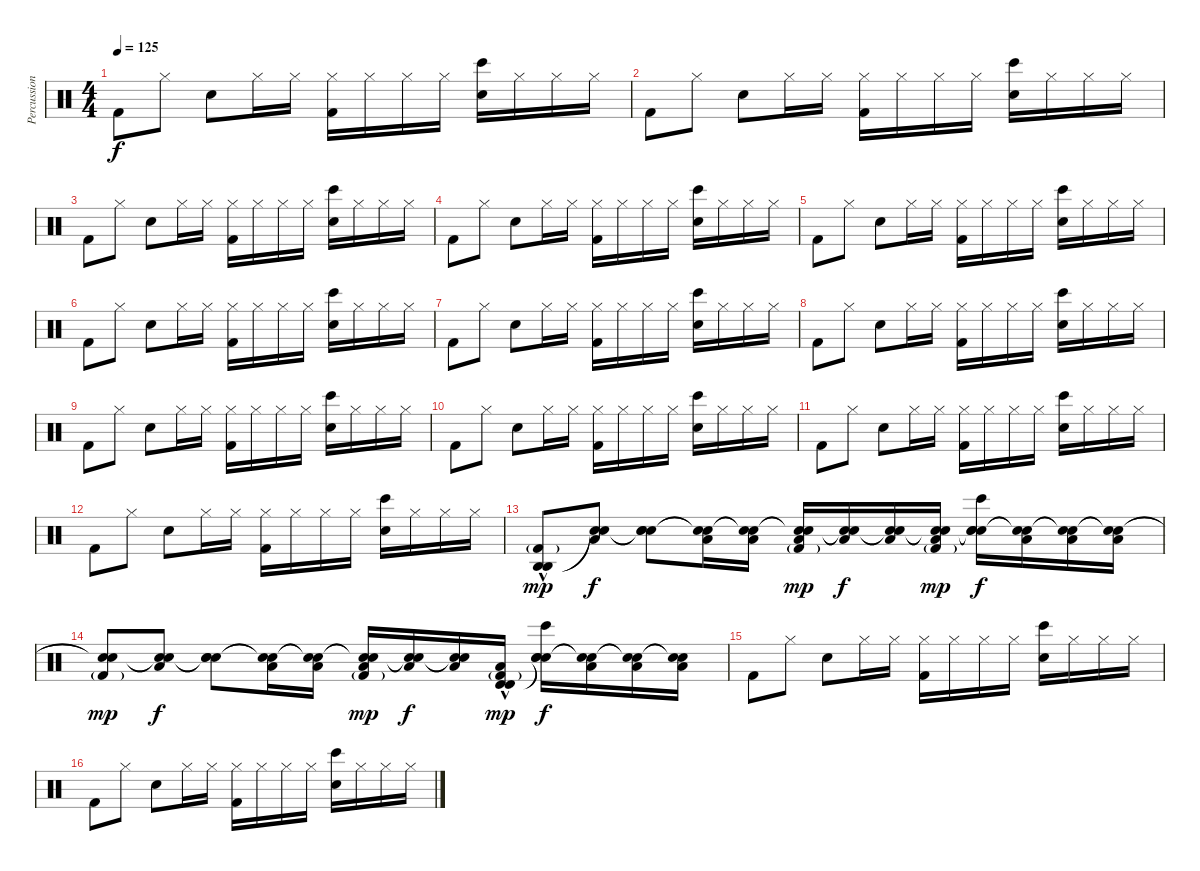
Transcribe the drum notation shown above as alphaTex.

\track ("Percussion" "Percussion") {instrument percussion}
\staff {score}
\articulation defaults
\ts (4 4)
\tempo 125
\clef neutral
\ks c "Kick (hit) 2".8{dy f} "Hi-Hat (closed)".8 "Snare (hit) 2".8 "Hi-Hat (closed)".16 "Hi-Hat (closed)".16
("Hi-Hat (closed)" "Kick (hit) 2").16 "Hi-Hat (closed)".16 "Hi-Hat (closed)".16 "Hi-Hat (closed)".16 ("Bongo High (hit)" "Snare (hit) 2").16 "Hi-Hat (closed)".16 "Hi-Hat (closed)".16 "Hi-Hat (closed)".16 |
"Kick (hit) 2".8 "Hi-Hat (closed)".8 "Snare (hit) 2".8 "Hi-Hat (closed)".16 "Hi-Hat (closed)".16 ("Hi-Hat (closed)" "Kick (hit) 2").16 "Hi-Hat (closed)".16 "Hi-Hat (closed)".16 "Hi-Hat (closed)".16 ("Bongo High (hit)" "Snare (hit) 2").16 "Hi-Hat (closed)".16 "Hi-Hat (closed)".16 "Hi-Hat (closed)".16 |
"Kick (hit) 2".8 "Hi-Hat (closed)".8 "Snare (hit) 2".8 "Hi-Hat (closed)".16 "Hi-Hat (closed)".16 ("Hi-Hat (closed)" "Kick (hit) 2").16 "Hi-Hat (closed)".16 "Hi-Hat (closed)".16 "Hi-Hat (closed)".16 ("Bongo High (hit)" "Snare (hit) 2").16 "Hi-Hat (closed)".16 "Hi-Hat (closed)".16 "Hi-Hat (closed)".16 |
"Kick (hit) 2".8 "Hi-Hat (closed)".8 "Snare (hit) 2".8 "Hi-Hat (closed)".16 "Hi-Hat (closed)".16 ("Hi-Hat (closed)" "Kick (hit) 2").16 "Hi-Hat (closed)".16 "Hi-Hat (closed)".16 "Hi-Hat (closed)".16 ("Bongo High (hit)" "Snare (hit) 2").16 "Hi-Hat (closed)".16 "Hi-Hat (closed)".16 "Hi-Hat (closed)".16 |
"Kick (hit) 2".8 "Hi-Hat (closed)".8 "Snare (hit) 2".8 "Hi-Hat (closed)".16 "Hi-Hat (closed)".16 ("Hi-Hat (closed)" "Kick (hit) 2").16 "Hi-Hat (closed)".16 "Hi-Hat (closed)".16 "Hi-Hat (closed)".16 ("Bongo High (hit)" "Snare (hit) 2").16 "Hi-Hat (closed)".16 "Hi-Hat (closed)".16 "Hi-Hat (closed)".16 |
"Kick (hit) 2".8 "Hi-Hat (closed)".8 "Snare (hit) 2".8 "Hi-Hat (closed)".16 "Hi-Hat (closed)".16 ("Hi-Hat (closed)" "Kick (hit) 2").16 "Hi-Hat (closed)".16 "Hi-Hat (closed)".16 "Hi-Hat (closed)".16 ("Bongo High (hit)" "Snare (hit) 2").16 "Hi-Hat (closed)".16 "Hi-Hat (closed)".16 "Hi-Hat (closed)".16 |
"Kick (hit) 2".8 "Hi-Hat (closed)".8 "Snare (hit) 2".8 "Hi-Hat (closed)".16 "Hi-Hat (closed)".16 ("Hi-Hat (closed)" "Kick (hit) 2").16 "Hi-Hat (closed)".16 "Hi-Hat (closed)".16 "Hi-Hat (closed)".16 ("Bongo High (hit)" "Snare (hit) 2").16 "Hi-Hat (closed)".16 "Hi-Hat (closed)".16 "Hi-Hat (closed)".16 |
"Kick (hit) 2".8 "Hi-Hat (closed)".8 "Snare (hit) 2".8 "Hi-Hat (closed)".16 "Hi-Hat (closed)".16 ("Hi-Hat (closed)" "Kick (hit) 2").16 "Hi-Hat (closed)".16 "Hi-Hat (closed)".16 "Hi-Hat (closed)".16 ("Bongo High (hit)" "Snare (hit) 2").16 "Hi-Hat (closed)".16 "Hi-Hat (closed)".16 "Hi-Hat (closed)".16 |
"Kick (hit) 2".8 "Hi-Hat (closed)".8 "Snare (hit) 2".8 "Hi-Hat (closed)".16 "Hi-Hat (closed)".16 ("Hi-Hat (closed)" "Kick (hit) 2").16 "Hi-Hat (closed)".16 "Hi-Hat (closed)".16 "Hi-Hat (closed)".16 ("Bongo High (hit)" "Snare (hit) 2").16 "Hi-Hat (closed)".16 "Hi-Hat (closed)".16 "Hi-Hat (closed)".16 |
"Kick (hit) 2".8 "Hi-Hat (closed)".8 "Snare (hit) 2".8 "Hi-Hat (closed)".16 "Hi-Hat (closed)".16 ("Hi-Hat (closed)" "Kick (hit) 2").16 "Hi-Hat (closed)".16 "Hi-Hat (closed)".16 "Hi-Hat (closed)".16 ("Bongo High (hit)" "Snare (hit) 2").16 "Hi-Hat (closed)".16 "Hi-Hat (closed)".16 "Hi-Hat (closed)".16 |
"Kick (hit) 2".8 "Hi-Hat (closed)".8 "Snare (hit) 2".8 "Hi-Hat (closed)".16 "Hi-Hat (closed)".16 ("Hi-Hat (closed)" "Kick (hit) 2").16 "Hi-Hat (closed)".16 "Hi-Hat (closed)".16 "Hi-Hat (closed)".16 ("Bongo High (hit)" "Snare (hit) 2").16 "Hi-Hat (closed)".16 "Hi-Hat (closed)".16 "Hi-Hat (closed)".16 |
"Kick (hit) 2".8 "Hi-Hat (closed)".8 "Snare (hit) 2".8 "Hi-Hat (closed)".16 "Hi-Hat (closed)".16 ("Hi-Hat (closed)" "Kick (hit) 2").16 "Hi-Hat (closed)".16 "Hi-Hat (closed)".16 "Hi-Hat (closed)".16 ("Bongo High (hit)" "Snare (hit) 2").16 "Hi-Hat (closed)".16 "Hi-Hat (closed)".16 "Hi-Hat (closed)".16 |
("Agogo high (hit)"{hac} "Agogo high (hit)"{hac} "Kick (hit) 2"{g}).8{dy mp} ("Snare (hit)"{t} "Snare (hit)"{t} "Low Tom (hit)").8{dy f} ("Snare (hit)"{t} "Snare (hit)"{t} "Snare (hit) 2").8 ("Snare (hit)"{t} "Snare (hit)"{t} "Low Tom (hit)").16 ("Snare (hit)"{t} "Snare (hit)"{t} "Low Tom (hit)").16 ("Snare (hit)"{t} "Snare (hit)"{t} "Low Tom (hit)" "Kick (hit) 2"{g}).16{dy mp} ("Snare (hit)"{t} "Snare (hit)"{t} "Low Tom (hit)").16{dy f} ("Snare (hit)"{t} "Snare (hit)"{t} "Low Tom (hit)").16 ("Snare (hit)"{t} "Snare (hit)"{t} "Low Tom (hit)" "Kick (hit) 2"{g}).16{dy mp} ("Snare (hit)"{t} "Snare (hit)"{t} "Bongo High (hit)" "Snare (hit) 2").16{dy f} ("Snare (hit)"{t} "Snare (hit)"{t} "Low Tom (hit)").16 ("Snare (hit)"{t} "Snare (hit)"{t} "Low Tom (hit)").16 ("Snare (hit)"{t} "Snare (hit)"{t} "Low Tom (hit)").16 |
("Snare (hit)"{t} "Snare (hit)"{t} "Kick (hit) 2"{g}).8{dy mp} ("Snare (hit)"{t} "Snare (hit)"{t} "Low Tom (hit)").8{dy f} ("Snare (hit)"{t} "Snare (hit)"{t} "Snare (hit) 2").8 ("Snare (hit)"{t} "Snare (hit)"{t} "Low Tom (hit)").16 ("Snare (hit)"{t} "Snare (hit)"{t} "Low Tom (hit)").16 ("Snare (hit)"{t} "Snare (hit)"{t} "Low Tom (hit)" "Kick (hit) 2"{g}).16{dy mp} ("Snare (hit)"{t} "Snare (hit)"{t} "Low Tom (hit)").16{dy f} ("Snare (hit)"{t} "Snare (hit)"{t} "Low Tom (hit)").16 ("Timbale high (hit)"{hac} "Timbale high (hit)"{hac} "Low Tom (hit)" "Kick (hit) 2"{g}).16{dy mp} ("Snare (hit)"{t} "Snare (hit)"{t} "Bongo High (hit)" "Snare (hit) 2").16{dy f} ("Snare (hit)"{t} "Snare (hit)"{t} "Low Tom (hit)").16 ("Snare (hit)"{t} "Snare (hit)"{t} "Low Tom (hit)").16 ("Snare (hit)"{t} "Snare (hit)"{t} "Low Tom (hit)").16 |
"Kick (hit) 2".8 "Hi-Hat (closed)".8 "Snare (hit) 2".8 "Hi-Hat (closed)".16 "Hi-Hat (closed)".16 ("Hi-Hat (closed)" "Kick (hit) 2").16 "Hi-Hat (closed)".16 "Hi-Hat (closed)".16 "Hi-Hat (closed)".16 ("Bongo High (hit)" "Snare (hit) 2").16 "Hi-Hat (closed)".16 "Hi-Hat (closed)".16 "Hi-Hat (closed)".16 |
"Kick (hit) 2".8 "Hi-Hat (closed)".8 "Snare (hit) 2".8 "Hi-Hat (closed)".16 "Hi-Hat (closed)".16 ("Hi-Hat (closed)" "Kick (hit) 2").16 "Hi-Hat (closed)".16 "Hi-Hat (closed)".16 "Hi-Hat (closed)".16 ("Bongo High (hit)" "Snare (hit) 2").16 "Hi-Hat (closed)".16 "Hi-Hat (closed)".16 "Hi-Hat (closed)".16
